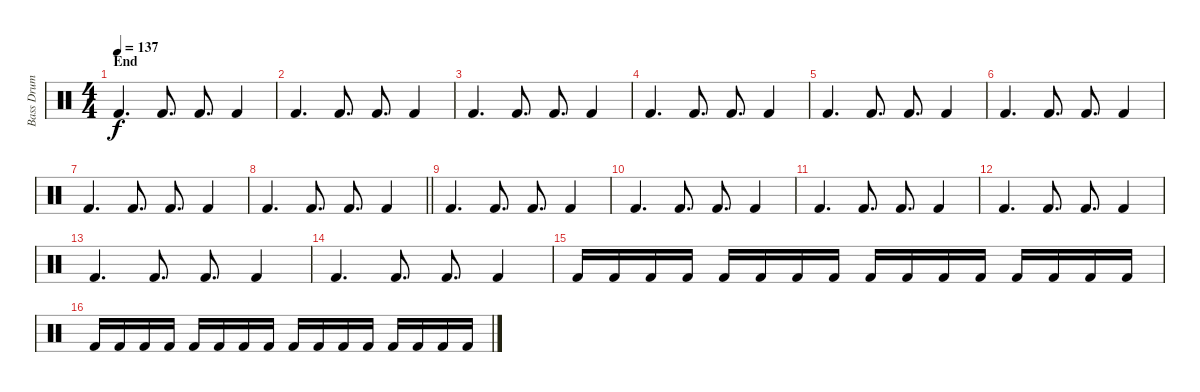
\track ("Bass Drum" "Bass Drum") {instrument percussion}
\staff {score}
\articulation defaults
\ts (4 4)
\section ("" "End")
\tempo 137
\clef neutral
\ks c "Kick (hit) 2".4{d dy f} "Kick (hit) 2".8{d} "Kick (hit) 2".8{d} "Kick (hit) 2".4
|
"Kick (hit) 2".4{d} "Kick (hit) 2".8{d} "Kick (hit) 2".8{d} "Kick (hit) 2".4 |
"Kick (hit) 2".4{d} "Kick (hit) 2".8{d} "Kick (hit) 2".8{d} "Kick (hit) 2".4 |
"Kick (hit) 2".4{d} "Kick (hit) 2".8{d} "Kick (hit) 2".8{d} "Kick (hit) 2".4 |
"Kick (hit) 2".4{d} "Kick (hit) 2".8{d} "Kick (hit) 2".8{d} "Kick (hit) 2".4 |
"Kick (hit) 2".4{d} "Kick (hit) 2".8{d} "Kick (hit) 2".8{d} "Kick (hit) 2".4 |
"Kick (hit) 2".4{d} "Kick (hit) 2".8{d} "Kick (hit) 2".8{d} "Kick (hit) 2".4 |
\barLineRight lightlight "Kick (hit) 2".4{d} "Kick (hit) 2".8{d} "Kick (hit) 2".8{d} "Kick (hit) 2".4
|
\section ("" "")
"Kick (hit) 2".4{d} "Kick (hit) 2".8{d} "Kick (hit) 2".8{d} "Kick (hit) 2".4 |
"Kick (hit) 2".4{d} "Kick (hit) 2".8{d} "Kick (hit) 2".8{d} "Kick (hit) 2".4 |
"Kick (hit) 2".4{d} "Kick (hit) 2".8{d} "Kick (hit) 2".8{d} "Kick (hit) 2".4 |
"Kick (hit) 2".4{d} "Kick (hit) 2".8{d} "Kick (hit) 2".8{d} "Kick (hit) 2".4 |
"Kick (hit) 2".4{d} "Kick (hit) 2".8{d} "Kick (hit) 2".8{d} "Kick (hit) 2".4 |
"Kick (hit) 2".4{d} "Kick (hit) 2".8{d} "Kick (hit) 2".8{d} "Kick (hit) 2".4 |
"Kick (hit) 2".16 "Kick (hit) 2".16 "Kick (hit) 2".16 "Kick (hit) 2".16 "Kick (hit) 2".16 "Kick (hit) 2".16 "Kick (hit) 2".16 "Kick (hit) 2".16 "Kick (hit) 2".16 "Kick (hit) 2".16 "Kick (hit) 2".16 "Kick (hit) 2".16 "Kick (hit) 2".16 "Kick (hit) 2".16 "Kick (hit) 2".16 "Kick (hit) 2".16 |
"Kick (hit) 2".16 "Kick (hit) 2".16 "Kick (hit) 2".16 "Kick (hit) 2".16 "Kick (hit) 2".16 "Kick (hit) 2".16 "Kick (hit) 2".16 "Kick (hit) 2".16 "Kick (hit) 2".16 "Kick (hit) 2".16 "Kick (hit) 2".16 "Kick (hit) 2".16 "Kick (hit) 2".16 "Kick (hit) 2".16 "Kick (hit) 2".16 "Kick (hit) 2".16
